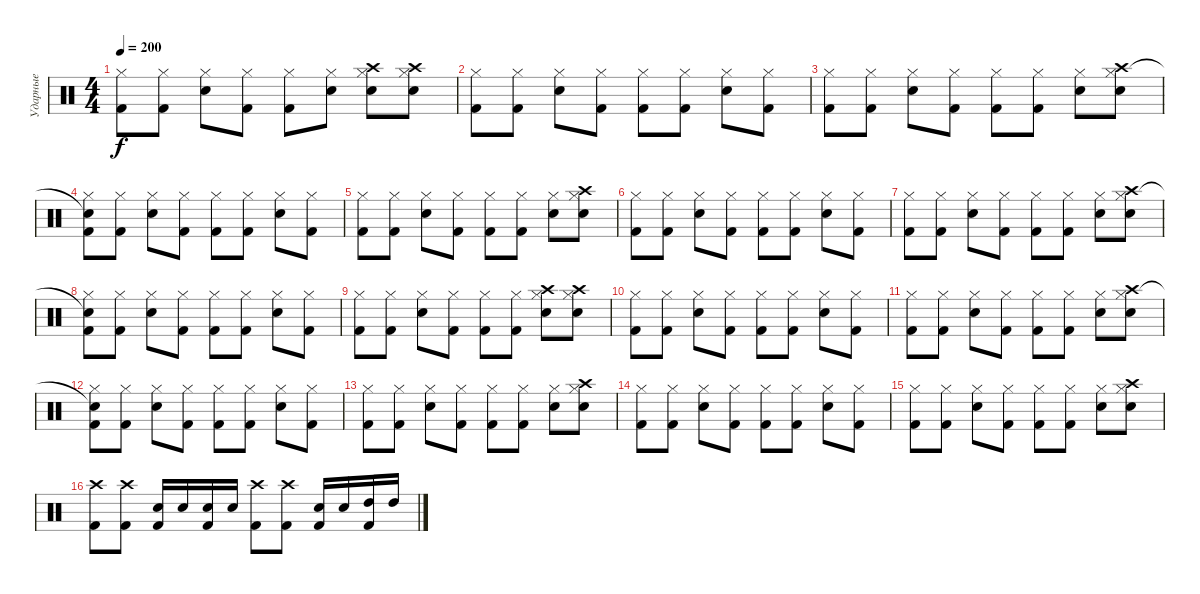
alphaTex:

\track ("Ударные" "Ударные") {instrument percussion}
\staff {score}
\articulation defaults
\ts (4 4)
\tempo 200
\clef neutral
\ks c
("Hi-Hat (closed)" "Kick (hit) 2").8{dy f} ("Hi-Hat (closed)" "Kick (hit) 2").8 ("Hi-Hat (closed)" "Electric Snare (hit)").8 ("Hi-Hat (closed)" "Kick (hit) 2").8 ("Hi-Hat (closed)" "Kick (hit) 2").8 ("Hi-Hat (closed)" "Electric Snare (hit)").8 ("Hi-Hat (closed)" "Crash high (hit)" "Electric Snare (hit)").8 ("Hi-Hat (closed)" "Crash high (hit)" "Electric Snare (hit)").8 |
("Hi-Hat (closed)" "Kick (hit) 2").8 ("Hi-Hat (closed)" "Kick (hit) 2").8 ("Hi-Hat (closed)" "Electric Snare (hit)").8 ("Hi-Hat (closed)" "Kick (hit) 2").8 ("Hi-Hat (closed)" "Kick (hit) 2").8 ("Hi-Hat (closed)" "Kick (hit) 2").8 ("Hi-Hat (closed)" "Electric Snare (hit)").8 ("Hi-Hat (closed)" "Kick (hit) 2").8 |
("Hi-Hat (closed)" "Kick (hit) 2").8 ("Hi-Hat (closed)" "Kick (hit) 2").8 ("Hi-Hat (closed)" "Electric Snare (hit)").8 ("Hi-Hat (closed)" "Kick (hit) 2").8 ("Hi-Hat (closed)" "Kick (hit) 2").8 ("Hi-Hat (closed)" "Kick (hit) 2").8 ("Hi-Hat (closed)" "Electric Snare (hit)").8 ("Hi-Hat (closed)" "Crash high (hit)" "Electric Snare (hit)").8 |
("Snare (hit)"{t} "Hi-Hat (closed)" "Kick (hit) 2").8 ("Hi-Hat (closed)" "Kick (hit) 2").8 ("Hi-Hat (closed)" "Electric Snare (hit)").8 ("Hi-Hat (closed)" "Kick (hit) 2").8 ("Hi-Hat (closed)" "Kick (hit) 2").8 ("Hi-Hat (closed)" "Kick (hit) 2").8 ("Hi-Hat (closed)" "Electric Snare (hit)").8 ("Hi-Hat (closed)" "Kick (hit) 2").8 |
("Hi-Hat (closed)" "Kick (hit) 2").8 ("Hi-Hat (closed)" "Kick (hit) 2").8 ("Hi-Hat (closed)" "Electric Snare (hit)").8 ("Hi-Hat (closed)" "Kick (hit) 2").8 ("Hi-Hat (closed)" "Kick (hit) 2").8 ("Hi-Hat (closed)" "Kick (hit) 2").8 ("Hi-Hat (closed)" "Electric Snare (hit)").8 ("Hi-Hat (closed)" "Crash high (hit)" "Electric Snare (hit)").8 |
("Hi-Hat (closed)" "Kick (hit) 2").8 ("Hi-Hat (closed)" "Kick (hit) 2").8 ("Hi-Hat (closed)" "Electric Snare (hit)").8 ("Hi-Hat (closed)" "Kick (hit) 2").8 ("Hi-Hat (closed)" "Kick (hit) 2").8 ("Hi-Hat (closed)" "Kick (hit) 2").8 ("Hi-Hat (closed)" "Electric Snare (hit)").8 ("Hi-Hat (closed)" "Kick (hit) 2").8 |
("Hi-Hat (closed)" "Kick (hit) 2").8 ("Hi-Hat (closed)" "Kick (hit) 2").8 ("Hi-Hat (closed)" "Electric Snare (hit)").8 ("Hi-Hat (closed)" "Kick (hit) 2").8 ("Hi-Hat (closed)" "Kick (hit) 2").8 ("Hi-Hat (closed)" "Kick (hit) 2").8 ("Hi-Hat (closed)" "Electric Snare (hit)").8 ("Hi-Hat (closed)" "Crash high (hit)" "Electric Snare (hit)").8 |
("Snare (hit)"{t} "Hi-Hat (closed)" "Kick (hit) 2").8 ("Hi-Hat (closed)" "Kick (hit) 2").8 ("Hi-Hat (closed)" "Electric Snare (hit)").8 ("Hi-Hat (closed)" "Kick (hit) 2").8 ("Hi-Hat (closed)" "Kick (hit) 2").8 ("Hi-Hat (closed)" "Kick (hit) 2").8 ("Hi-Hat (closed)" "Electric Snare (hit)").8 ("Hi-Hat (closed)" "Kick (hit) 2").8 |
("Hi-Hat (closed)" "Kick (hit) 2").8 ("Hi-Hat (closed)" "Kick (hit) 2").8 ("Hi-Hat (closed)" "Electric Snare (hit)").8 ("Hi-Hat (closed)" "Kick (hit) 2").8 ("Hi-Hat (closed)" "Kick (hit) 2").8 ("Hi-Hat (closed)" "Kick (hit) 2").8 ("Hi-Hat (closed)" "Crash high (hit)" "Electric Snare (hit)").8 ("Hi-Hat (closed)" "Crash high (hit)" "Electric Snare (hit)").8 |
("Hi-Hat (closed)" "Kick (hit) 2").8 ("Hi-Hat (closed)" "Kick (hit) 2").8 ("Hi-Hat (closed)" "Electric Snare (hit)").8 ("Hi-Hat (closed)" "Kick (hit) 2").8 ("Hi-Hat (closed)" "Kick (hit) 2").8 ("Hi-Hat (closed)" "Kick (hit) 2").8 ("Hi-Hat (closed)" "Electric Snare (hit)").8 ("Hi-Hat (closed)" "Kick (hit) 2").8 |
("Hi-Hat (closed)" "Kick (hit) 2").8 ("Hi-Hat (closed)" "Kick (hit) 2").8 ("Hi-Hat (closed)" "Electric Snare (hit)").8 ("Hi-Hat (closed)" "Kick (hit) 2").8 ("Hi-Hat (closed)" "Kick (hit) 2").8 ("Hi-Hat (closed)" "Kick (hit) 2").8 ("Hi-Hat (closed)" "Electric Snare (hit)").8 ("Hi-Hat (closed)" "Crash high (hit)" "Electric Snare (hit)").8 |
("Snare (hit)"{t} "Hi-Hat (closed)" "Kick (hit) 2").8 ("Hi-Hat (closed)" "Kick (hit) 2").8 ("Hi-Hat (closed)" "Electric Snare (hit)").8 ("Hi-Hat (closed)" "Kick (hit) 2").8 ("Hi-Hat (closed)" "Kick (hit) 2").8 ("Hi-Hat (closed)" "Kick (hit) 2").8 ("Hi-Hat (closed)" "Electric Snare (hit)").8 ("Hi-Hat (closed)" "Kick (hit) 2").8 |
("Hi-Hat (closed)" "Kick (hit) 2").8 ("Hi-Hat (closed)" "Kick (hit) 2").8 ("Hi-Hat (closed)" "Electric Snare (hit)").8 ("Hi-Hat (closed)" "Kick (hit) 2").8 ("Hi-Hat (closed)" "Kick (hit) 2").8 ("Hi-Hat (closed)" "Kick (hit) 2").8 ("Hi-Hat (closed)" "Electric Snare (hit)").8 ("Hi-Hat (closed)" "Crash high (hit)" "Electric Snare (hit)").8 |
("Hi-Hat (closed)" "Kick (hit) 2").8 ("Hi-Hat (closed)" "Kick (hit) 2").8 ("Hi-Hat (closed)" "Electric Snare (hit)").8 ("Hi-Hat (closed)" "Kick (hit) 2").8 ("Hi-Hat (closed)" "Kick (hit) 2").8 ("Hi-Hat (closed)" "Kick (hit) 2").8 ("Hi-Hat (closed)" "Electric Snare (hit)").8 ("Hi-Hat (closed)" "Kick (hit) 2").8 |
("Hi-Hat (closed)" "Kick (hit) 2").8 ("Hi-Hat (closed)" "Kick (hit) 2").8 ("Hi-Hat (closed)" "Electric Snare (hit)").8 ("Hi-Hat (closed)" "Kick (hit) 2").8 ("Hi-Hat (closed)" "Kick (hit) 2").8 ("Hi-Hat (closed)" "Kick (hit) 2").8 ("Hi-Hat (closed)" "Electric Snare (hit)").8 ("Hi-Hat (closed)" "Crash high (hit)" "Electric Snare (hit)").8 |
("Crash high (hit)" "Kick (hit) 2").8 ("Crash high (hit)" "Kick (hit) 2").8 ("Electric Snare (hit)" "Kick (hit) 2").16 "Electric Snare (hit)".16 ("Electric Snare (hit)" "Kick (hit) 2").16 "Electric Snare (hit)".16 ("Crash high (hit)" "Kick (hit) 2").8 ("Crash high (hit)" "Kick (hit) 2").8 ("Electric Snare (hit)" "Kick (hit) 2").16 "Electric Snare (hit)".16 ("High Tom (hit)" "Kick (hit) 2").16 "High Tom (hit)".16
